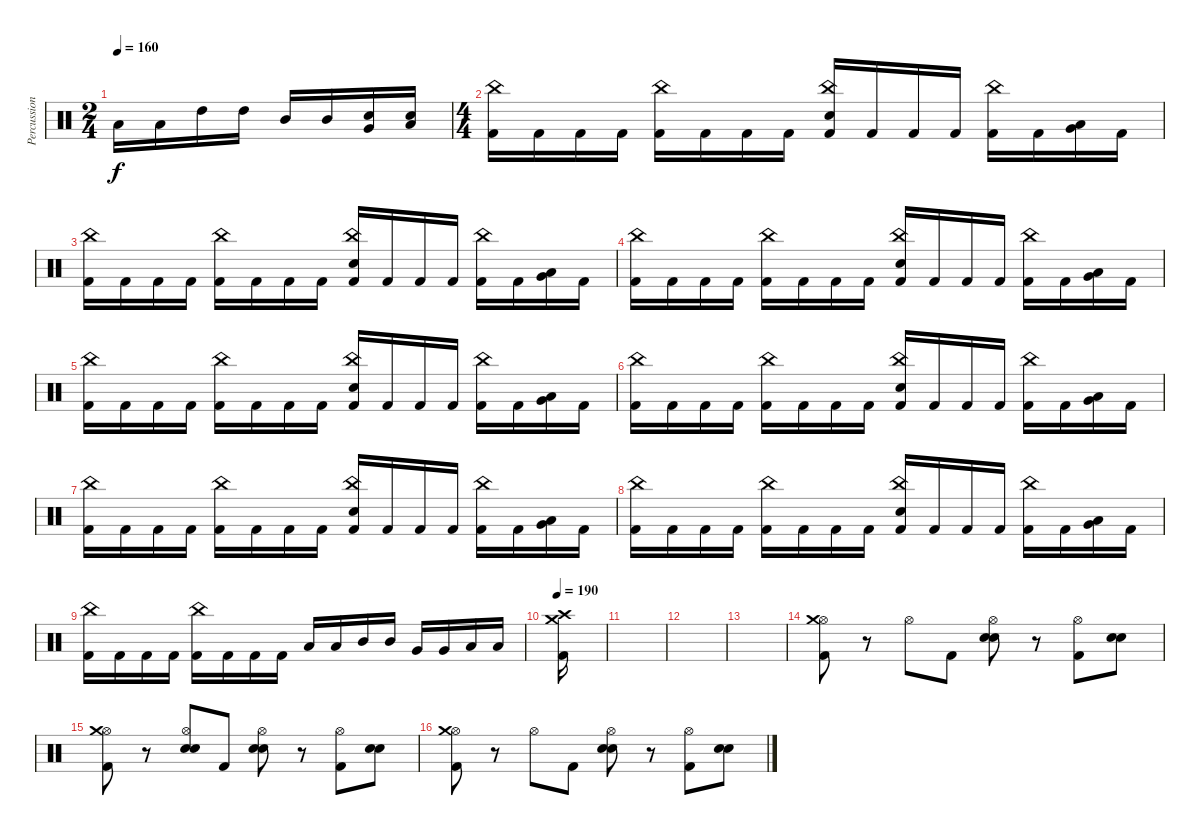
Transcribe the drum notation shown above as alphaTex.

\track ("Percussion" "Percussion") {instrument percussion}
\staff {score}
\articulation defaults
\ts (2 4)
\tempo 160
\clef neutral
\ks c "Low Tom (hit)".16{dy f} "Low Tom (hit)".16 "High Tom (hit)".16 "High Tom (hit)".16 "Mid Tom (hit)".16 "Mid Tom (hit)".16
("Very Low Tom (hit)" "Electric Snare (hit)").16 ("Low Floor Tom (hit)" "Electric Snare (hit)").16 |
\ts (4 4)
("China (hit)" "Kick (hit) 2").16 "Kick (hit) 2".16 "Kick (hit) 2".16 "Kick (hit) 2".16 ("China (hit)" "Kick (hit) 2").16 "Kick (hit) 2".16 "Kick (hit) 2".16 "Kick (hit) 2".16 ("China (hit)" "Electric Snare (hit)" "Kick (hit) 2").16 "Kick (hit) 2".16 "Kick (hit) 2".16 "Kick (hit) 2".16 ("China (hit)" "Kick (hit) 2").16 "Kick (hit) 2".16 ("Low Floor Tom (hit)" "Very Low Tom (hit)").16 "Kick (hit) 2".16 |
("China (hit)" "Kick (hit) 2").16 "Kick (hit) 2".16 "Kick (hit) 2".16 "Kick (hit) 2".16 ("China (hit)" "Kick (hit) 2").16 "Kick (hit) 2".16 "Kick (hit) 2".16 "Kick (hit) 2".16 ("China (hit)" "Electric Snare (hit)" "Kick (hit) 2").16 "Kick (hit) 2".16 "Kick (hit) 2".16 "Kick (hit) 2".16 ("China (hit)" "Kick (hit) 2").16 "Kick (hit) 2".16 ("Low Floor Tom (hit)" "Very Low Tom (hit)").16 "Kick (hit) 2".16 |
("China (hit)" "Kick (hit) 2").16 "Kick (hit) 2".16 "Kick (hit) 2".16 "Kick (hit) 2".16 ("China (hit)" "Kick (hit) 2").16 "Kick (hit) 2".16 "Kick (hit) 2".16 "Kick (hit) 2".16 ("China (hit)" "Electric Snare (hit)" "Kick (hit) 2").16 "Kick (hit) 2".16 "Kick (hit) 2".16 "Kick (hit) 2".16 ("China (hit)" "Kick (hit) 2").16 "Kick (hit) 2".16 ("Low Floor Tom (hit)" "Very Low Tom (hit)").16 "Kick (hit) 2".16 |
("China (hit)" "Kick (hit) 2").16 "Kick (hit) 2".16 "Kick (hit) 2".16 "Kick (hit) 2".16 ("China (hit)" "Kick (hit) 2").16 "Kick (hit) 2".16 "Kick (hit) 2".16 "Kick (hit) 2".16 ("China (hit)" "Electric Snare (hit)" "Kick (hit) 2").16 "Kick (hit) 2".16 "Kick (hit) 2".16 "Kick (hit) 2".16 ("China (hit)" "Kick (hit) 2").16 "Kick (hit) 2".16 ("Low Floor Tom (hit)" "Very Low Tom (hit)").16 "Kick (hit) 2".16 |
("China (hit)" "Kick (hit) 2").16 "Kick (hit) 2".16 "Kick (hit) 2".16 "Kick (hit) 2".16 ("China (hit)" "Kick (hit) 2").16 "Kick (hit) 2".16 "Kick (hit) 2".16 "Kick (hit) 2".16 ("China (hit)" "Electric Snare (hit)" "Kick (hit) 2").16 "Kick (hit) 2".16 "Kick (hit) 2".16 "Kick (hit) 2".16 ("China (hit)" "Kick (hit) 2").16 "Kick (hit) 2".16 ("Low Floor Tom (hit)" "Very Low Tom (hit)").16 "Kick (hit) 2".16 |
("China (hit)" "Kick (hit) 2").16 "Kick (hit) 2".16 "Kick (hit) 2".16 "Kick (hit) 2".16 ("China (hit)" "Kick (hit) 2").16 "Kick (hit) 2".16 "Kick (hit) 2".16 "Kick (hit) 2".16 ("China (hit)" "Electric Snare (hit)" "Kick (hit) 2").16 "Kick (hit) 2".16 "Kick (hit) 2".16 "Kick (hit) 2".16 ("China (hit)" "Kick (hit) 2").16 "Kick (hit) 2".16 ("Low Floor Tom (hit)" "Very Low Tom (hit)").16 "Kick (hit) 2".16 |
("China (hit)" "Kick (hit) 2").16 "Kick (hit) 2".16 "Kick (hit) 2".16 "Kick (hit) 2".16 ("China (hit)" "Kick (hit) 2").16 "Kick (hit) 2".16 "Kick (hit) 2".16 "Kick (hit) 2".16 ("China (hit)" "Electric Snare (hit)" "Kick (hit) 2").16 "Kick (hit) 2".16 "Kick (hit) 2".16 "Kick (hit) 2".16 ("China (hit)" "Kick (hit) 2").16 "Kick (hit) 2".16 ("Low Floor Tom (hit)" "Very Low Tom (hit)").16 "Kick (hit) 2".16 |
("China (hit)" "Kick (hit) 2").16 "Kick (hit) 2".16 "Kick (hit) 2".16 "Kick (hit) 2".16 ("China (hit)" "Kick (hit) 2").16 "Kick (hit) 2".16 "Kick (hit) 2".16 "Kick (hit) 2".16 "Low Tom (hit)".16 "Low Tom (hit)".16 "Mid Tom (hit)".16 "Mid Tom (hit)".16 "Very Low Tom (hit)".16 "Very Low Tom (hit)".16 "Low Floor Tom (hit)".16 "Low Floor Tom (hit)".16 |
\tempo 190
("Crash high (hit)" "Crash medium (hit)" "Kick (hit) 2").16 |
|
|
|
("Hi-Hat (open)" "Crash medium (hit)" "Kick (hit) 2").8 r.8 "Hi-Hat (open)".8 "Kick (hit) 2".8 ("Hi-Hat (open)" "Snare (hit) 2" "Electric Snare (hit)").8 r.8 ("Hi-Hat (open)" "Kick (hit) 2").8 ("Snare (hit) 2" "Electric Snare (hit)").8 |
("Hi-Hat (open)" "Crash medium (hit)" "Kick (hit) 2").8 r.8 ("Hi-Hat (open)" "Electric Snare (hit)" "Snare (hit) 2").8 "Kick (hit) 2".8 ("Hi-Hat (open)" "Snare (hit) 2" "Electric Snare (hit)").8 r.8 ("Hi-Hat (open)" "Kick (hit) 2").8 ("Snare (hit) 2" "Electric Snare (hit)").8 |
("Hi-Hat (open)" "Crash medium (hit)" "Kick (hit) 2").8 r.8 "Hi-Hat (open)".8 "Kick (hit) 2".8 ("Hi-Hat (open)" "Snare (hit) 2" "Electric Snare (hit)").8 r.8 ("Hi-Hat (open)" "Kick (hit) 2").8 ("Snare (hit) 2" "Electric Snare (hit)").8
